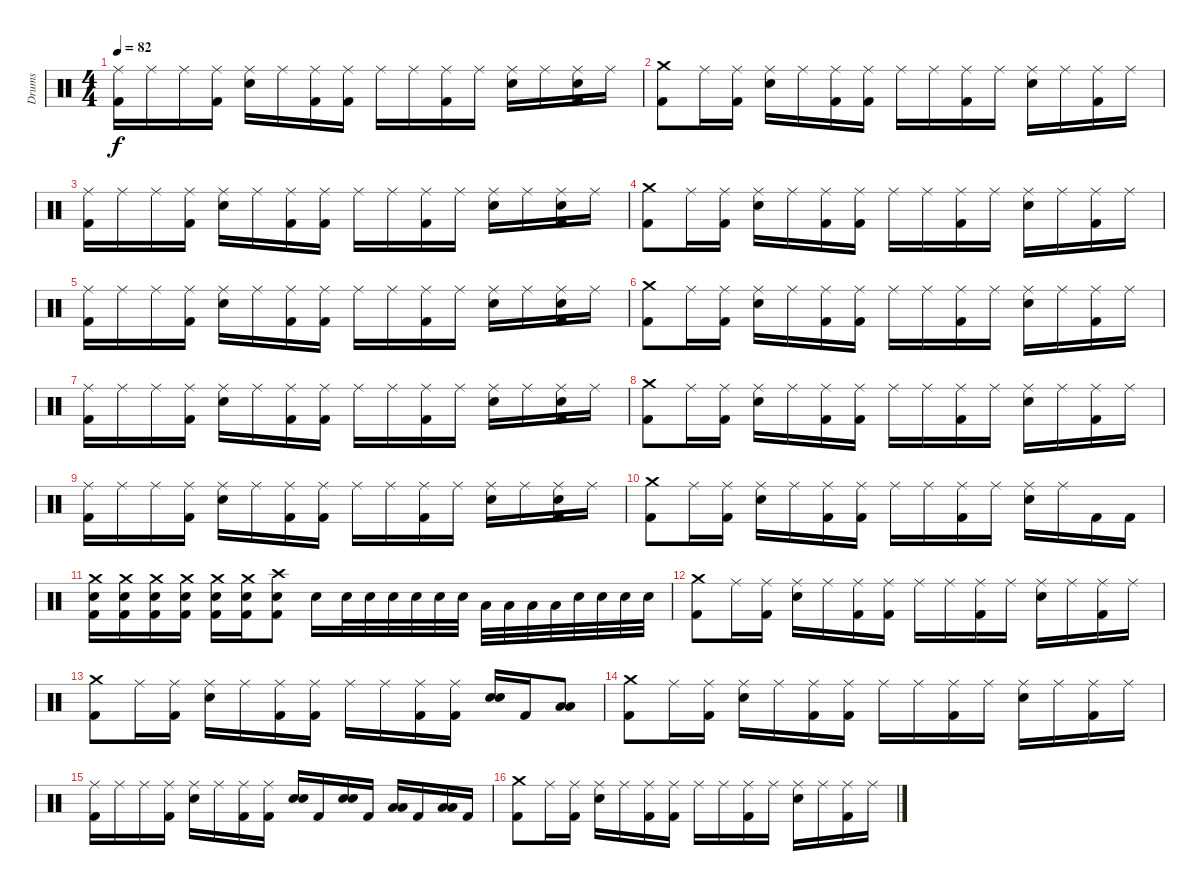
\track ("Drums" "Drums") {instrument percussion}
\staff {score}
\articulation defaults
\ts (4 4)
\tempo 82
\clef neutral
\ks c
("Ride (middle)" "Kick (hit) 2").16{dy f} "Ride (middle)".16 "Ride (middle)".16 ("Ride (middle)" "Kick (hit) 2").16 ("Ride (middle)" "Snare (hit) 2").16 "Ride (middle)".16 ("Ride (middle)" "Kick (hit) 2").16 ("Ride (middle)" "Kick (hit) 2").16 "Ride (middle)".16 "Ride (middle)".16 ("Ride (middle)" "Kick (hit) 2").16 "Ride (middle)".16 ("Ride (middle)" "Snare (hit) 2").16 "Ride (middle)".16 ("Ride (middle)" "Snare (hit) 2" "Kick (hit) 2").16 "Ride (middle)".16 |
("Crash medium (hit)" "Kick (hit) 2").8 "Ride (middle)".16 ("Ride (middle)" "Kick (hit) 2").16 ("Ride (middle)" "Snare (hit) 2").16 "Ride (middle)".16 ("Ride (middle)" "Kick (hit) 2").16 ("Ride (middle)" "Kick (hit) 2").16 "Ride (middle)".16 "Ride (middle)".16 ("Ride (middle)" "Kick (hit) 2").16 "Ride (middle)".16 ("Ride (middle)" "Snare (hit) 2").16 "Ride (middle)".16 ("Ride (middle)" "Kick (hit) 2").16 "Ride (middle)".16 |
("Ride (middle)" "Kick (hit) 2").16 "Ride (middle)".16 "Ride (middle)".16 ("Ride (middle)" "Kick (hit) 2").16 ("Ride (middle)" "Snare (hit) 2").16 "Ride (middle)".16 ("Ride (middle)" "Kick (hit) 2").16 ("Ride (middle)" "Kick (hit) 2").16 "Ride (middle)".16 "Ride (middle)".16 ("Ride (middle)" "Kick (hit) 2").16 "Ride (middle)".16 ("Ride (middle)" "Snare (hit) 2").16 "Ride (middle)".16 ("Ride (middle)" "Snare (hit) 2" "Kick (hit) 2").16 "Ride (middle)".16 |
("Crash medium (hit)" "Kick (hit) 2").8 "Ride (middle)".16 ("Ride (middle)" "Kick (hit) 2").16 ("Ride (middle)" "Snare (hit) 2").16 "Ride (middle)".16 ("Ride (middle)" "Kick (hit) 2").16 ("Ride (middle)" "Kick (hit) 2").16 "Ride (middle)".16 "Ride (middle)".16 ("Ride (middle)" "Kick (hit) 2").16 "Ride (middle)".16 ("Ride (middle)" "Snare (hit) 2").16 "Ride (middle)".16 ("Ride (middle)" "Kick (hit) 2").16 "Ride (middle)".16 |
("Ride (middle)" "Kick (hit) 2").16 "Ride (middle)".16 "Ride (middle)".16 ("Ride (middle)" "Kick (hit) 2").16 ("Ride (middle)" "Snare (hit) 2").16 "Ride (middle)".16 ("Ride (middle)" "Kick (hit) 2").16 ("Ride (middle)" "Kick (hit) 2").16 "Ride (middle)".16 "Ride (middle)".16 ("Ride (middle)" "Kick (hit) 2").16 "Ride (middle)".16 ("Ride (middle)" "Snare (hit) 2").16 "Ride (middle)".16 ("Ride (middle)" "Snare (hit) 2" "Kick (hit) 2").16 "Ride (middle)".16 |
("Crash medium (hit)" "Kick (hit) 2").8 "Ride (middle)".16 ("Ride (middle)" "Kick (hit) 2").16 ("Ride (middle)" "Snare (hit) 2").16 "Ride (middle)".16 ("Ride (middle)" "Kick (hit) 2").16 ("Ride (middle)" "Kick (hit) 2").16 "Ride (middle)".16 "Ride (middle)".16 ("Ride (middle)" "Kick (hit) 2").16 "Ride (middle)".16 ("Ride (middle)" "Snare (hit) 2").16 "Ride (middle)".16 ("Ride (middle)" "Kick (hit) 2").16 "Ride (middle)".16 |
("Ride (middle)" "Kick (hit) 2").16 "Ride (middle)".16 "Ride (middle)".16 ("Ride (middle)" "Kick (hit) 2").16 ("Ride (middle)" "Snare (hit) 2").16 "Ride (middle)".16 ("Ride (middle)" "Kick (hit) 2").16 ("Ride (middle)" "Kick (hit) 2").16 "Ride (middle)".16 "Ride (middle)".16 ("Ride (middle)" "Kick (hit) 2").16 "Ride (middle)".16 ("Ride (middle)" "Snare (hit) 2").16 "Ride (middle)".16 ("Ride (middle)" "Snare (hit) 2" "Kick (hit) 2").16 "Ride (middle)".16 |
("Crash medium (hit)" "Kick (hit) 2").8 "Ride (middle)".16 ("Ride (middle)" "Kick (hit) 2").16 ("Ride (middle)" "Snare (hit) 2").16 "Ride (middle)".16 ("Ride (middle)" "Kick (hit) 2").16 ("Ride (middle)" "Kick (hit) 2").16 "Ride (middle)".16 "Ride (middle)".16 ("Ride (middle)" "Kick (hit) 2").16 "Ride (middle)".16 ("Ride (middle)" "Snare (hit) 2").16 "Ride (middle)".16 ("Ride (middle)" "Kick (hit) 2").16 "Ride (middle)".16 |
("Ride (middle)" "Kick (hit) 2").16 "Ride (middle)".16 "Ride (middle)".16 ("Ride (middle)" "Kick (hit) 2").16 ("Ride (middle)" "Snare (hit) 2").16 "Ride (middle)".16 ("Ride (middle)" "Kick (hit) 2").16 ("Ride (middle)" "Kick (hit) 2").16 "Ride (middle)".16 "Ride (middle)".16 ("Ride (middle)" "Kick (hit) 2").16 "Ride (middle)".16 ("Ride (middle)" "Snare (hit) 2").16 "Ride (middle)".16 ("Ride (middle)" "Snare (hit) 2" "Kick (hit) 2").16 "Ride (middle)".16 |
("Crash medium (hit)" "Kick (hit) 2").8 "Ride (middle)".16 ("Ride (middle)" "Kick (hit) 2").16 ("Ride (middle)" "Snare (hit) 2").16 "Ride (middle)".16 ("Ride (middle)" "Kick (hit) 2").16 ("Ride (middle)" "Kick (hit) 2").16 "Ride (middle)".16 "Ride (middle)".16 ("Ride (middle)" "Kick (hit) 2").16 "Ride (middle)".16 ("Ride (middle)" "Snare (hit) 2").16 "Ride (middle)".16 "Kick (hit) 2".16 "Kick (hit) 2".16 |
("Crash medium (hit)" "Snare (hit) 2" "Kick (hit) 2").16 ("Crash medium (hit)" "Snare (hit) 2" "Kick (hit) 2").16 ("Crash medium (hit)" "Snare (hit) 2" "Kick (hit) 2").16 ("Crash medium (hit)" "Snare (hit) 2" "Kick (hit) 2").16 ("Crash medium (hit)" "Snare (hit) 2" "Kick (hit) 2").16 ("Crash medium (hit)" "Snare (hit) 2" "Kick (hit) 2").16 ("Crash high (hit)" "Snare (hit) 2" "Kick (hit) 2").8 "Snare (hit) 2".16 "Snare (hit) 2".32 "Snare (hit) 2".32 "Snare (hit) 2".32 "Snare (hit) 2".32 "Snare (hit) 2".32 "Snare (hit) 2".32 "Low Tom (hit)".32 "Low Tom (hit)".32 "Low Tom (hit)".32 "Low Tom (hit)".32 "Snare (hit) 2".32 "Snare (hit) 2".32 "Snare (hit) 2".32 "Snare (hit) 2".32 |
("Crash medium (hit)" "Kick (hit) 2").8 "Ride (middle)".16 ("Ride (middle)" "Kick (hit) 2").16 ("Ride (middle)" "Snare (hit) 2").16 "Ride (middle)".16 ("Ride (middle)" "Kick (hit) 2").16 ("Ride (middle)" "Kick (hit) 2").16 "Ride (middle)".16 "Ride (middle)".16 ("Ride (middle)" "Kick (hit) 2").16 "Ride (middle)".16 ("Ride (middle)" "Snare (hit) 2").16 "Ride (middle)".16 ("Ride (middle)" "Kick (hit) 2").16 "Ride (middle)".16 |
("Crash medium (hit)" "Kick (hit) 2").8 "Ride (middle)".16 ("Ride (middle)" "Kick (hit) 2").16 ("Ride (middle)" "Snare (hit) 2").16 "Ride (middle)".16 ("Ride (middle)" "Kick (hit) 2").16 ("Ride (middle)" "Kick (hit) 2").16 "Ride (middle)".16 "Ride (middle)".16 ("Ride (middle)" "Kick (hit) 2").16 ("Ride (middle)" "Kick (hit) 2").16 ("Snare (hit) 2" "Snare (hit) 2").16{bd 120} "Kick (hit) 2".16 ("Low Tom (hit)" "Low Tom (hit)").8{bd 120} |
("Crash medium (hit)" "Kick (hit) 2").8 "Ride (middle)".16 ("Ride (middle)" "Kick (hit) 2").16 ("Ride (middle)" "Snare (hit) 2").16 "Ride (middle)".16 ("Ride (middle)" "Kick (hit) 2").16 ("Ride (middle)" "Kick (hit) 2").16 "Ride (middle)".16 "Ride (middle)".16 ("Ride (middle)" "Kick (hit) 2").16 "Ride (middle)".16 ("Ride (middle)" "Snare (hit) 2").16 "Ride (middle)".16 ("Ride (middle)" "Kick (hit) 2").16 "Ride (middle)".16 |
("Ride (middle)" "Kick (hit) 2").16 "Ride (middle)".16 "Ride (middle)".16 ("Ride (middle)" "Kick (hit) 2").16 ("Ride (middle)" "Snare (hit) 2").16 "Ride (middle)".16 ("Ride (middle)" "Kick (hit) 2").16 ("Ride (middle)" "Kick (hit) 2").16 ("Snare (hit) 2" "Snare (hit) 2").16{bd 120} "Kick (hit) 2".16 ("Snare (hit) 2" "Snare (hit) 2").16{bd 120} "Kick (hit) 2".16 ("Low Floor Tom (hit)" "Low Tom (hit)").16 "Kick (hit) 2".16 ("Low Tom (hit)" "Low Floor Tom (hit)").16 "Kick (hit) 2".16 |
("Crash medium (hit)" "Kick (hit) 2").8 "Ride (middle)".16 ("Ride (middle)" "Kick (hit) 2").16 ("Ride (middle)" "Snare (hit) 2").16 "Ride (middle)".16 ("Ride (middle)" "Kick (hit) 2").16 ("Ride (middle)" "Kick (hit) 2").16 "Ride (middle)".16 "Ride (middle)".16 ("Ride (middle)" "Kick (hit) 2").16 "Ride (middle)".16 ("Ride (middle)" "Snare (hit) 2").16 "Ride (middle)".16 ("Ride (middle)" "Kick (hit) 2").16 "Ride (middle)".16
